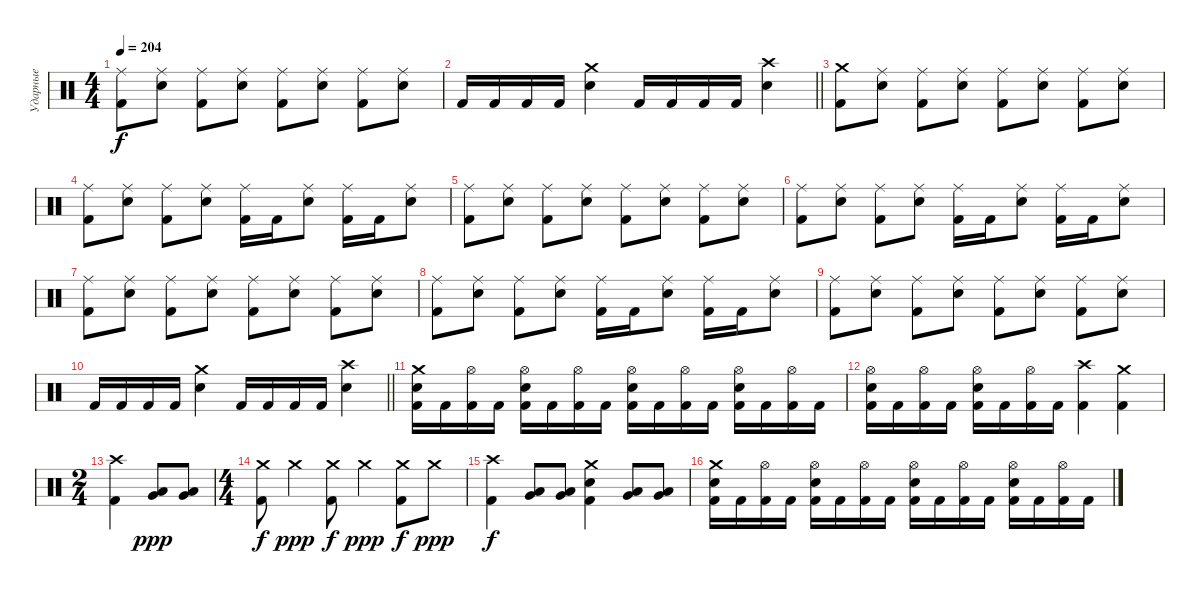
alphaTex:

\track ("Ударные" "Ударные") {instrument percussion}
\staff {score}
\articulation defaults
\ts (4 4)
\tempo 204
\clef neutral
\ks c
("Ride (middle)" "Kick (hit) 2").8{dy f} ("Ride (middle)" "Snare (hit) 2").8 ("Ride (middle)" "Kick (hit) 2").8 ("Ride (middle)" "Snare (hit) 2").8 ("Ride (middle)" "Kick (hit) 2").8 ("Ride (middle)" "Snare (hit) 2").8 ("Ride (middle)" "Kick (hit) 2").8 ("Ride (middle)" "Snare (hit) 2").8 |
\barLineRight lightlight "Kick (hit) 2".16 "Kick (hit) 2".16 "Kick (hit) 2".16 "Kick (hit) 2".16
("Crash medium (hit)" "Snare (hit) 2").4 "Kick (hit) 2".16 "Kick (hit) 2".16 "Kick (hit) 2".16 "Kick (hit) 2".16 ("Crash high (hit)" "Snare (hit) 2").4 |
("Crash medium (hit)" "Kick (hit) 2").8 ("Ride (middle)" "Snare (hit) 2").8 ("Ride (middle)" "Kick (hit) 2").8 ("Ride (middle)" "Snare (hit) 2").8 ("Ride (middle)" "Kick (hit) 2").8 ("Ride (middle)" "Snare (hit) 2").8 ("Ride (middle)" "Kick (hit) 2").8 ("Ride (middle)" "Snare (hit) 2").8 |
("Ride (middle)" "Kick (hit) 2").8 ("Ride (middle)" "Snare (hit) 2").8 ("Ride (middle)" "Kick (hit) 2").8 ("Ride (middle)" "Snare (hit) 2").8 ("Ride (middle)" "Kick (hit) 2").16 "Kick (hit) 2".16 ("Ride (middle)" "Snare (hit) 2").8 ("Ride (middle)" "Kick (hit) 2").16 "Kick (hit) 2".16 ("Ride (middle)" "Snare (hit) 2").8 |
("Ride (middle)" "Kick (hit) 2").8 ("Ride (middle)" "Snare (hit) 2").8 ("Ride (middle)" "Kick (hit) 2").8 ("Ride (middle)" "Snare (hit) 2").8 ("Ride (middle)" "Kick (hit) 2").8 ("Ride (middle)" "Snare (hit) 2").8 ("Ride (middle)" "Kick (hit) 2").8 ("Ride (middle)" "Snare (hit) 2").8 |
("Ride (middle)" "Kick (hit) 2").8 ("Ride (middle)" "Snare (hit) 2").8 ("Ride (middle)" "Kick (hit) 2").8 ("Ride (middle)" "Snare (hit) 2").8 ("Ride (middle)" "Kick (hit) 2").16 "Kick (hit) 2".16 ("Ride (middle)" "Snare (hit) 2").8 ("Ride (middle)" "Kick (hit) 2").16 "Kick (hit) 2".16 ("Ride (middle)" "Snare (hit) 2").8 |
("Ride (middle)" "Kick (hit) 2").8 ("Ride (middle)" "Snare (hit) 2").8 ("Ride (middle)" "Kick (hit) 2").8 ("Ride (middle)" "Snare (hit) 2").8 ("Ride (middle)" "Kick (hit) 2").8 ("Ride (middle)" "Snare (hit) 2").8 ("Ride (middle)" "Kick (hit) 2").8 ("Ride (middle)" "Snare (hit) 2").8 |
("Ride (middle)" "Kick (hit) 2").8 ("Ride (middle)" "Snare (hit) 2").8 ("Ride (middle)" "Kick (hit) 2").8 ("Ride (middle)" "Snare (hit) 2").8 ("Ride (middle)" "Kick (hit) 2").16 "Kick (hit) 2".16 ("Ride (middle)" "Snare (hit) 2").8 ("Ride (middle)" "Kick (hit) 2").16 "Kick (hit) 2".16 ("Ride (middle)" "Snare (hit) 2").8 |
("Ride (middle)" "Kick (hit) 2").8 ("Ride (middle)" "Snare (hit) 2").8 ("Ride (middle)" "Kick (hit) 2").8 ("Ride (middle)" "Snare (hit) 2").8 ("Ride (middle)" "Kick (hit) 2").8 ("Ride (middle)" "Snare (hit) 2").8 ("Ride (middle)" "Kick (hit) 2").8 ("Ride (middle)" "Snare (hit) 2").8 |
\barLineRight lightlight "Kick (hit) 2".16 "Kick (hit) 2".16 "Kick (hit) 2".16 "Kick (hit) 2".16
("Crash medium (hit)" "Snare (hit) 2").4 "Kick (hit) 2".16 "Kick (hit) 2".16 "Kick (hit) 2".16 "Kick (hit) 2".16 ("Crash high (hit)" "Snare (hit) 2").4 |
("Crash medium (hit)" "Snare (hit) 2" "Kick (hit) 2").16 "Kick (hit) 2".16 ("Hi-Hat (open)" "Kick (hit) 2").16 "Kick (hit) 2".16 ("Hi-Hat (open)" "Snare (hit) 2" "Kick (hit) 2").16 "Kick (hit) 2".16 ("Hi-Hat (open)" "Kick (hit) 2").16 "Kick (hit) 2".16 ("Hi-Hat (open)" "Snare (hit) 2" "Kick (hit) 2").16 "Kick (hit) 2".16 ("Hi-Hat (open)" "Kick (hit) 2").16 "Kick (hit) 2".16 ("Hi-Hat (open)" "Snare (hit) 2" "Kick (hit) 2").16 "Kick (hit) 2".16 ("Hi-Hat (open)" "Kick (hit) 2").16 "Kick (hit) 2".16 |
("Hi-Hat (open)" "Snare (hit) 2" "Kick (hit) 2").16 "Kick (hit) 2".16 ("Hi-Hat (open)" "Kick (hit) 2").16 "Kick (hit) 2".16 ("Hi-Hat (open)" "Snare (hit) 2" "Kick (hit) 2").16 "Kick (hit) 2".16 ("Hi-Hat (open)" "Kick (hit) 2").16 "Kick (hit) 2".16 ("Crash high (hit)" "Kick (hit) 2").4 ("Crash medium (hit)" "Kick (hit) 2").4 |
\ts (2 4)
("Crash high (hit)" "Kick (hit) 2").4 ("Low Tom (hit)" "Very Low Tom (hit)").8{dy ppp} ("Low Tom (hit)" "Very Low Tom (hit)").8 |
\ts (4 4)
("Crash medium (hit)" "Kick (hit) 2").8{dy f} "Crash medium (hit)".4{dy ppp} ("Crash medium (hit)" "Kick (hit) 2").8{dy f} "Crash medium (hit)".4{dy ppp} ("Crash medium (hit)" "Kick (hit) 2").8{dy f} "Crash medium (hit)".8{dy ppp} |
("Crash high (hit)" "Kick (hit) 2").4{dy f} ("Low Tom (hit)" "Very Low Tom (hit)").8 ("Low Tom (hit)" "Very Low Tom (hit)").8 ("Crash medium (hit)" "Snare (hit) 2" "Kick (hit) 2").4 ("Low Tom (hit)" "Very Low Tom (hit)").8 ("Low Tom (hit)" "Very Low Tom (hit)").8 |
("Crash medium (hit)" "Snare (hit) 2" "Kick (hit) 2").16 "Kick (hit) 2".16 ("Hi-Hat (open)" "Kick (hit) 2").16 "Kick (hit) 2".16 ("Hi-Hat (open)" "Snare (hit) 2" "Kick (hit) 2").16 "Kick (hit) 2".16 ("Hi-Hat (open)" "Kick (hit) 2").16 "Kick (hit) 2".16 ("Hi-Hat (open)" "Snare (hit) 2" "Kick (hit) 2").16 "Kick (hit) 2".16 ("Hi-Hat (open)" "Kick (hit) 2").16 "Kick (hit) 2".16 ("Hi-Hat (open)" "Snare (hit) 2" "Kick (hit) 2").16 "Kick (hit) 2".16 ("Hi-Hat (open)" "Kick (hit) 2").16 "Kick (hit) 2".16
